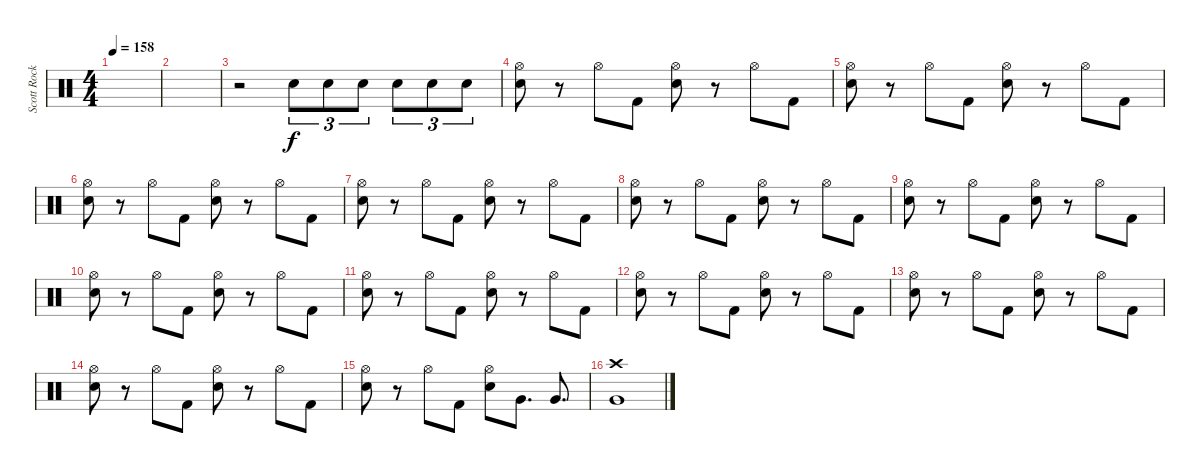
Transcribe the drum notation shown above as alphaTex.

\track ("Scott Rockenfield" "Scott Rock") {instrument percussion}
\staff {score}
\articulation defaults
\ts (4 4)
\tempo 158
\clef neutral
\ks c
|
|
r.2 "Electric Snare (hit)".8{tu (3 2)} "Electric Snare (hit)".8{tu (3 2)} "Electric Snare (hit)".8{tu (3 2)} "Electric Snare (hit)".8{tu (3 2)} "Electric Snare (hit)".8{tu (3 2)} "Electric Snare (hit)".8{tu (3 2)} |
("Hi-Hat (open)" "Electric Snare (hit)").8 r.8 "Hi-Hat (open)".8 "Kick (hit) 2".8 ("Hi-Hat (open)" "Electric Snare (hit)").8 r.8 "Hi-Hat (open)".8 "Kick (hit) 2".8 |
("Hi-Hat (open)" "Electric Snare (hit)").8 r.8 "Hi-Hat (open)".8 "Kick (hit) 2".8 ("Hi-Hat (open)" "Electric Snare (hit)").8 r.8 "Hi-Hat (open)".8 "Kick (hit) 2".8 |
("Hi-Hat (open)" "Electric Snare (hit)").8 r.8 "Hi-Hat (open)".8 "Kick (hit) 2".8 ("Hi-Hat (open)" "Electric Snare (hit)").8 r.8 "Hi-Hat (open)".8 "Kick (hit) 2".8 |
("Hi-Hat (open)" "Electric Snare (hit)").8 r.8 "Hi-Hat (open)".8 "Kick (hit) 2".8 ("Hi-Hat (open)" "Electric Snare (hit)").8 r.8 "Hi-Hat (open)".8 "Kick (hit) 2".8 |
("Hi-Hat (open)" "Electric Snare (hit)").8 r.8 "Hi-Hat (open)".8 "Kick (hit) 2".8 ("Hi-Hat (open)" "Electric Snare (hit)").8 r.8 "Hi-Hat (open)".8 "Kick (hit) 2".8 |
("Hi-Hat (open)" "Electric Snare (hit)").8 r.8 "Hi-Hat (open)".8 "Kick (hit) 2".8 ("Hi-Hat (open)" "Electric Snare (hit)").8 r.8 "Hi-Hat (open)".8 "Kick (hit) 2".8 |
("Hi-Hat (open)" "Electric Snare (hit)").8 r.8 "Hi-Hat (open)".8 "Kick (hit) 2".8 ("Hi-Hat (open)" "Electric Snare (hit)").8 r.8 "Hi-Hat (open)".8 "Kick (hit) 2".8 |
("Hi-Hat (open)" "Electric Snare (hit)").8 r.8 "Hi-Hat (open)".8 "Kick (hit) 2".8 ("Hi-Hat (open)" "Electric Snare (hit)").8 r.8 "Hi-Hat (open)".8 "Kick (hit) 2".8 |
("Hi-Hat (open)" "Electric Snare (hit)").8 r.8 "Hi-Hat (open)".8 "Kick (hit) 2".8 ("Hi-Hat (open)" "Electric Snare (hit)").8 r.8 "Hi-Hat (open)".8 "Kick (hit) 2".8 |
("Hi-Hat (open)" "Electric Snare (hit)").8 r.8 "Hi-Hat (open)".8 "Kick (hit) 2".8 ("Hi-Hat (open)" "Electric Snare (hit)").8 r.8 "Hi-Hat (open)".8 "Kick (hit) 2".8 |
("Hi-Hat (open)" "Electric Snare (hit)").8 r.8 "Hi-Hat (open)".8 "Kick (hit) 2".8 ("Hi-Hat (open)" "Electric Snare (hit)").8 r.8 "Hi-Hat (open)".8 "Kick (hit) 2".8 |
("Hi-Hat (open)" "Electric Snare (hit)").8 r.8 "Hi-Hat (open)".8 "Kick (hit) 2".8 ("Hi-Hat (open)" "Electric Snare (hit)").8 "Very Low Tom (hit)".8{d} "Very Low Tom (hit)".8{d} |
("Crash high (hit)" "Very Low Tom (hit)").1
